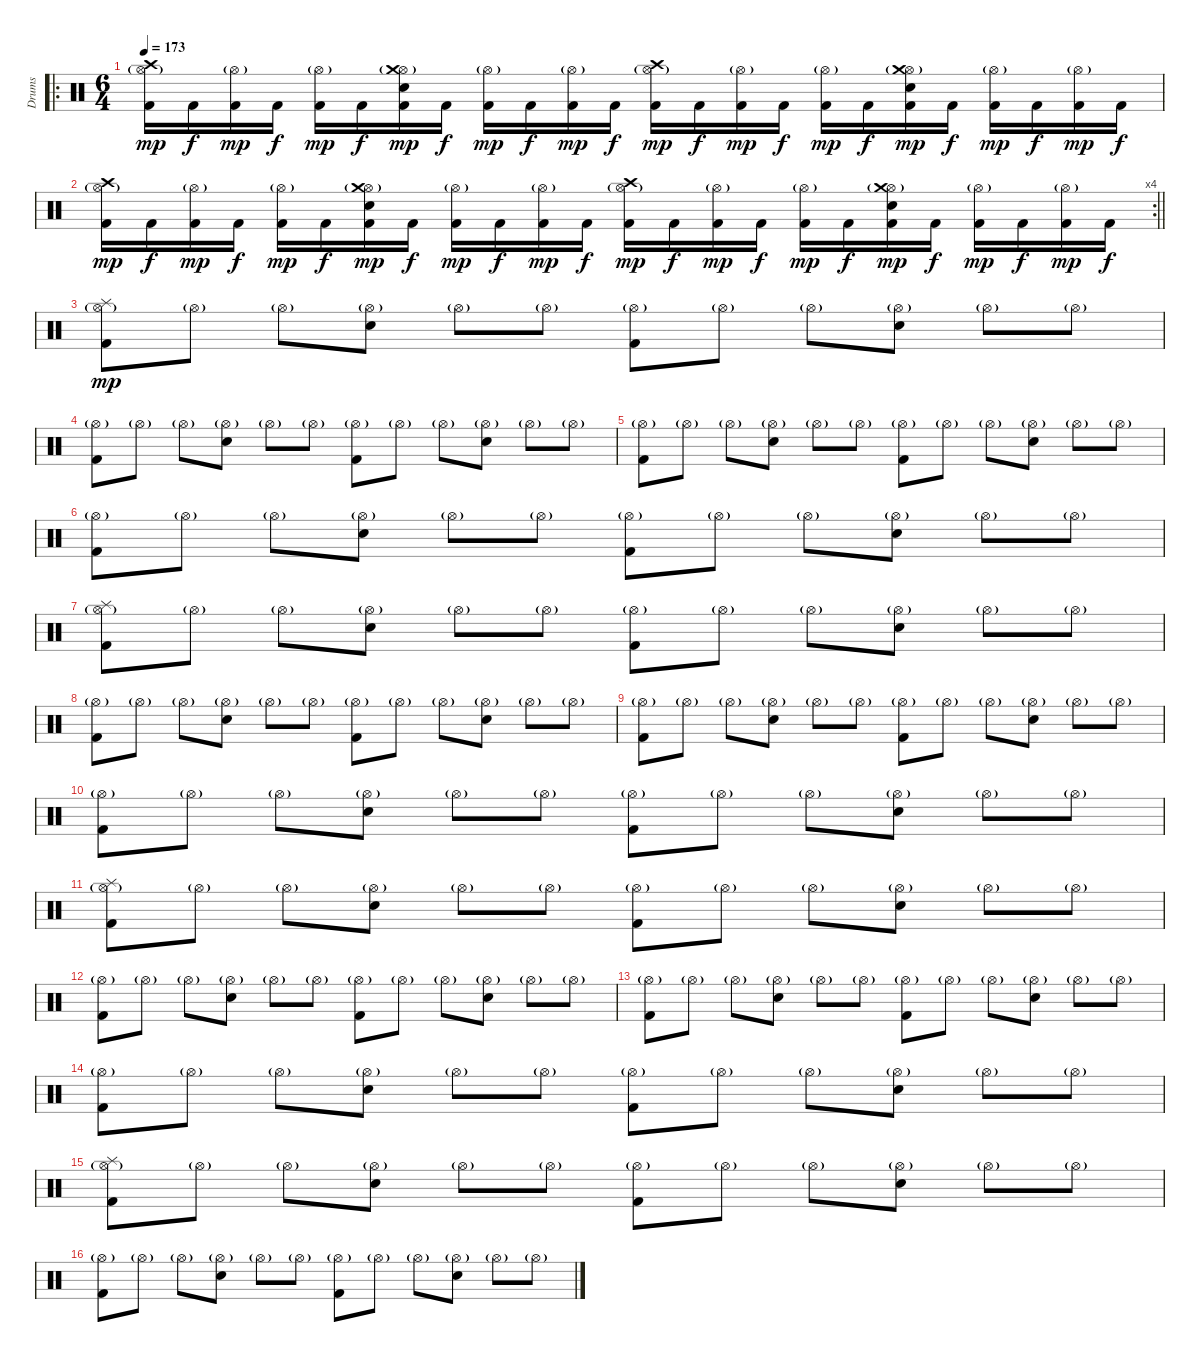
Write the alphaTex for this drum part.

\track ("Drums" "Drums") {instrument percussion}
\staff {score}
\articulation defaults
\ro
\ts (6 4)
\section ("" "")
\tempo 173
\clef neutral
\ks c
("Kick (hit) 2" "Hi-Hat (open)"{g} "Crash high (hit)").16{dy mp} "Kick (hit) 2".16{dy f} ("Kick (hit) 2" "Hi-Hat (open)"{g}).16{dy mp} "Kick (hit) 2".16{dy f} ("Kick (hit) 2" "Hi-Hat (open)"{g}).16{dy mp} "Kick (hit) 2".16{dy f} ("Kick (hit) 2" "Snare (hit) 2" "Hi-Hat (open)"{g} "Crash medium (hit)").16{dy mp} "Kick (hit) 2".16{dy f} ("Kick (hit) 2" "Hi-Hat (open)"{g}).16{dy mp} "Kick (hit) 2".16{dy f} ("Kick (hit) 2" "Hi-Hat (open)"{g}).16{dy mp} "Kick (hit) 2".16{dy f} ("Kick (hit) 2" "Hi-Hat (open)"{g} "Crash high (hit)").16{dy mp} "Kick (hit) 2".16{dy f} ("Kick (hit) 2" "Hi-Hat (open)"{g}).16{dy mp} "Kick (hit) 2".16{dy f} ("Kick (hit) 2" "Hi-Hat (open)"{g}).16{dy mp} "Kick (hit) 2".16{dy f} ("Kick (hit) 2" "Snare (hit) 2" "Hi-Hat (open)"{g} "Crash medium (hit)").16{dy mp} "Kick (hit) 2".16{dy f} ("Kick (hit) 2" "Hi-Hat (open)"{g}).16{dy mp} "Kick (hit) 2".16{dy f} ("Kick (hit) 2" "Hi-Hat (open)"{g}).16{dy mp} "Kick (hit) 2".16{dy f} |
\rc 4
\barLineRight lightlight
("Kick (hit) 2" "Hi-Hat (open)"{g} "Crash high (hit)").16{dy mp} "Kick (hit) 2".16{dy f} ("Kick (hit) 2" "Hi-Hat (open)"{g}).16{dy mp} "Kick (hit) 2".16{dy f} ("Kick (hit) 2" "Hi-Hat (open)"{g}).16{dy mp} "Kick (hit) 2".16{dy f} ("Kick (hit) 2" "Snare (hit) 2" "Hi-Hat (open)"{g} "Crash medium (hit)").16{dy mp} "Kick (hit) 2".16{dy f} ("Kick (hit) 2" "Hi-Hat (open)"{g}).16{dy mp} "Kick (hit) 2".16{dy f} ("Kick (hit) 2" "Hi-Hat (open)"{g}).16{dy mp} "Kick (hit) 2".16{dy f} ("Kick (hit) 2" "Hi-Hat (open)"{g} "Crash high (hit)").16{dy mp} "Kick (hit) 2".16{dy f} ("Kick (hit) 2" "Hi-Hat (open)"{g}).16{dy mp} "Kick (hit) 2".16{dy f} ("Kick (hit) 2" "Hi-Hat (open)"{g}).16{dy mp} "Kick (hit) 2".16{dy f} ("Kick (hit) 2" "Snare (hit) 2" "Hi-Hat (open)"{g} "Crash medium (hit)").16{dy mp} "Kick (hit) 2".16{dy f} ("Kick (hit) 2" "Hi-Hat (open)"{g}).16{dy mp} "Kick (hit) 2".16{dy f} ("Kick (hit) 2" "Hi-Hat (open)"{g}).16{dy mp} "Kick (hit) 2".16{dy f} |
\section ("" "")
("Kick (hit) 2" "Hi-Hat (open)"{g} "Splash (hit)").8{dy mp} "Hi-Hat (open)"{g}.8 "Hi-Hat (open)"{g}.8 ("Snare (hit) 2" "Hi-Hat (open)"{g}).8 "Hi-Hat (open)"{g}.8 "Hi-Hat (open)"{g}.8 ("Kick (hit) 2" "Hi-Hat (open)"{g}).8 "Hi-Hat (open)"{g}.8 "Hi-Hat (open)"{g}.8 ("Snare (hit) 2" "Hi-Hat (open)"{g}).8 "Hi-Hat (open)"{g}.8 "Hi-Hat (open)"{g}.8 |
("Kick (hit) 2" "Hi-Hat (open)"{g}).8 "Hi-Hat (open)"{g}.8 "Hi-Hat (open)"{g}.8 ("Snare (hit) 2" "Hi-Hat (open)"{g}).8 "Hi-Hat (open)"{g}.8 "Hi-Hat (open)"{g}.8 ("Kick (hit) 2" "Hi-Hat (open)"{g}).8 "Hi-Hat (open)"{g}.8 "Hi-Hat (open)"{g}.8 ("Snare (hit) 2" "Hi-Hat (open)"{g}).8 "Hi-Hat (open)"{g}.8 "Hi-Hat (open)"{g}.8 |
("Kick (hit) 2" "Hi-Hat (open)"{g}).8 "Hi-Hat (open)"{g}.8 "Hi-Hat (open)"{g}.8 ("Snare (hit) 2" "Hi-Hat (open)"{g}).8 "Hi-Hat (open)"{g}.8 "Hi-Hat (open)"{g}.8 ("Kick (hit) 2" "Hi-Hat (open)"{g}).8 "Hi-Hat (open)"{g}.8 "Hi-Hat (open)"{g}.8 ("Snare (hit) 2" "Hi-Hat (open)"{g}).8 "Hi-Hat (open)"{g}.8 "Hi-Hat (open)"{g}.8 |
("Kick (hit) 2" "Hi-Hat (open)"{g}).8 "Hi-Hat (open)"{g}.8 "Hi-Hat (open)"{g}.8 ("Snare (hit) 2" "Hi-Hat (open)"{g}).8 "Hi-Hat (open)"{g}.8 "Hi-Hat (open)"{g}.8 ("Kick (hit) 2" "Hi-Hat (open)"{g}).8 "Hi-Hat (open)"{g}.8 "Hi-Hat (open)"{g}.8 ("Snare (hit) 2" "Hi-Hat (open)"{g}).8 "Hi-Hat (open)"{g}.8 "Hi-Hat (open)"{g}.8 |
("Kick (hit) 2" "Hi-Hat (open)"{g} "Splash (hit)").8 "Hi-Hat (open)"{g}.8 "Hi-Hat (open)"{g}.8 ("Snare (hit) 2" "Hi-Hat (open)"{g}).8 "Hi-Hat (open)"{g}.8 "Hi-Hat (open)"{g}.8 ("Kick (hit) 2" "Hi-Hat (open)"{g}).8 "Hi-Hat (open)"{g}.8 "Hi-Hat (open)"{g}.8 ("Snare (hit) 2" "Hi-Hat (open)"{g}).8 "Hi-Hat (open)"{g}.8 "Hi-Hat (open)"{g}.8 |
("Kick (hit) 2" "Hi-Hat (open)"{g}).8 "Hi-Hat (open)"{g}.8 "Hi-Hat (open)"{g}.8 ("Snare (hit) 2" "Hi-Hat (open)"{g}).8 "Hi-Hat (open)"{g}.8 "Hi-Hat (open)"{g}.8 ("Kick (hit) 2" "Hi-Hat (open)"{g}).8 "Hi-Hat (open)"{g}.8 "Hi-Hat (open)"{g}.8 ("Snare (hit) 2" "Hi-Hat (open)"{g}).8 "Hi-Hat (open)"{g}.8 "Hi-Hat (open)"{g}.8 |
("Kick (hit) 2" "Hi-Hat (open)"{g}).8 "Hi-Hat (open)"{g}.8 "Hi-Hat (open)"{g}.8 ("Snare (hit) 2" "Hi-Hat (open)"{g}).8 "Hi-Hat (open)"{g}.8 "Hi-Hat (open)"{g}.8 ("Kick (hit) 2" "Hi-Hat (open)"{g}).8 "Hi-Hat (open)"{g}.8 "Hi-Hat (open)"{g}.8 ("Snare (hit) 2" "Hi-Hat (open)"{g}).8 "Hi-Hat (open)"{g}.8 "Hi-Hat (open)"{g}.8 |
("Kick (hit) 2" "Hi-Hat (open)"{g}).8 "Hi-Hat (open)"{g}.8 "Hi-Hat (open)"{g}.8 ("Snare (hit) 2" "Hi-Hat (open)"{g}).8 "Hi-Hat (open)"{g}.8 "Hi-Hat (open)"{g}.8 ("Kick (hit) 2" "Hi-Hat (open)"{g}).8 "Hi-Hat (open)"{g}.8 "Hi-Hat (open)"{g}.8 ("Snare (hit) 2" "Hi-Hat (open)"{g}).8 "Hi-Hat (open)"{g}.8 "Hi-Hat (open)"{g}.8 |
("Kick (hit) 2" "Hi-Hat (open)"{g} "Splash (hit)").8 "Hi-Hat (open)"{g}.8 "Hi-Hat (open)"{g}.8 ("Snare (hit) 2" "Hi-Hat (open)"{g}).8 "Hi-Hat (open)"{g}.8 "Hi-Hat (open)"{g}.8 ("Kick (hit) 2" "Hi-Hat (open)"{g}).8 "Hi-Hat (open)"{g}.8 "Hi-Hat (open)"{g}.8 ("Snare (hit) 2" "Hi-Hat (open)"{g}).8 "Hi-Hat (open)"{g}.8 "Hi-Hat (open)"{g}.8 |
("Kick (hit) 2" "Hi-Hat (open)"{g}).8 "Hi-Hat (open)"{g}.8 "Hi-Hat (open)"{g}.8 ("Snare (hit) 2" "Hi-Hat (open)"{g}).8 "Hi-Hat (open)"{g}.8 "Hi-Hat (open)"{g}.8 ("Kick (hit) 2" "Hi-Hat (open)"{g}).8 "Hi-Hat (open)"{g}.8 "Hi-Hat (open)"{g}.8 ("Snare (hit) 2" "Hi-Hat (open)"{g}).8 "Hi-Hat (open)"{g}.8 "Hi-Hat (open)"{g}.8 |
("Kick (hit) 2" "Hi-Hat (open)"{g}).8 "Hi-Hat (open)"{g}.8 "Hi-Hat (open)"{g}.8 ("Snare (hit) 2" "Hi-Hat (open)"{g}).8 "Hi-Hat (open)"{g}.8 "Hi-Hat (open)"{g}.8 ("Kick (hit) 2" "Hi-Hat (open)"{g}).8 "Hi-Hat (open)"{g}.8 "Hi-Hat (open)"{g}.8 ("Snare (hit) 2" "Hi-Hat (open)"{g}).8 "Hi-Hat (open)"{g}.8 "Hi-Hat (open)"{g}.8 |
("Kick (hit) 2" "Hi-Hat (open)"{g}).8 "Hi-Hat (open)"{g}.8 "Hi-Hat (open)"{g}.8 ("Snare (hit) 2" "Hi-Hat (open)"{g}).8 "Hi-Hat (open)"{g}.8 "Hi-Hat (open)"{g}.8 ("Kick (hit) 2" "Hi-Hat (open)"{g}).8 "Hi-Hat (open)"{g}.8 "Hi-Hat (open)"{g}.8 ("Snare (hit) 2" "Hi-Hat (open)"{g}).8 "Hi-Hat (open)"{g}.8 "Hi-Hat (open)"{g}.8 |
("Kick (hit) 2" "Hi-Hat (open)"{g} "Splash (hit)").8 "Hi-Hat (open)"{g}.8 "Hi-Hat (open)"{g}.8 ("Snare (hit) 2" "Hi-Hat (open)"{g}).8 "Hi-Hat (open)"{g}.8 "Hi-Hat (open)"{g}.8 ("Kick (hit) 2" "Hi-Hat (open)"{g}).8 "Hi-Hat (open)"{g}.8 "Hi-Hat (open)"{g}.8 ("Snare (hit) 2" "Hi-Hat (open)"{g}).8 "Hi-Hat (open)"{g}.8 "Hi-Hat (open)"{g}.8 |
("Kick (hit) 2" "Hi-Hat (open)"{g}).8 "Hi-Hat (open)"{g}.8 "Hi-Hat (open)"{g}.8 ("Snare (hit) 2" "Hi-Hat (open)"{g}).8 "Hi-Hat (open)"{g}.8 "Hi-Hat (open)"{g}.8 ("Kick (hit) 2" "Hi-Hat (open)"{g}).8 "Hi-Hat (open)"{g}.8 "Hi-Hat (open)"{g}.8 ("Snare (hit) 2" "Hi-Hat (open)"{g}).8 "Hi-Hat (open)"{g}.8 "Hi-Hat (open)"{g}.8
